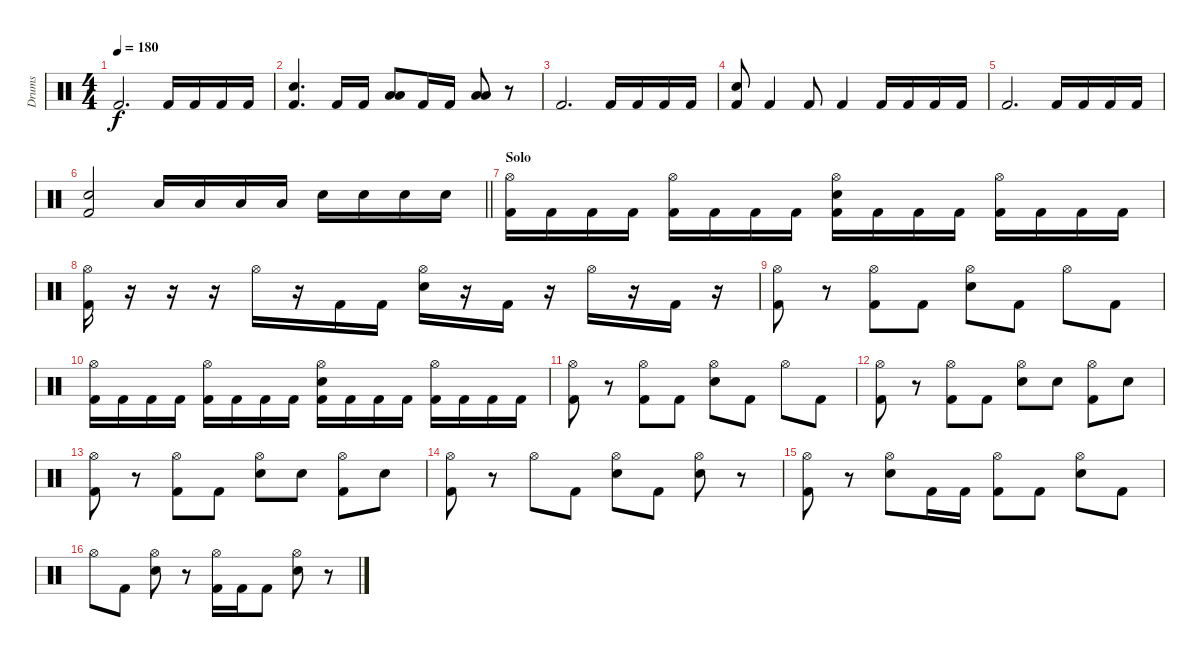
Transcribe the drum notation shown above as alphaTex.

\track ("Drums" "Drums") {instrument percussion}
\staff {score}
\articulation defaults
\ts (4 4)
\tempo 180
\clef neutral
\ks c "Kick (hit) 2".2{d dy f} "Kick (hit) 2".16 "Kick (hit) 2".16 "Kick (hit) 2".16 "Kick (hit) 2".16
|
("Electric Snare (hit)" "Kick (hit) 2").4{d} "Kick (hit) 2".16 "Kick (hit) 2".16 ("Low Tom (hit)" "Low Tom (hit)").8 "Kick (hit) 2".16 "Kick (hit) 2".16 ("Low Floor Tom (hit)" "Low Floor Tom (hit)").8 r.8 |
"Kick (hit) 2".2{d} "Kick (hit) 2".16 "Kick (hit) 2".16 "Kick (hit) 2".16 "Kick (hit) 2".16 |
("Electric Snare (hit)" "Kick (hit) 2").8 "Kick (hit) 2".4 "Kick (hit) 2".8 "Kick (hit) 2".4 "Kick (hit) 2".16 "Kick (hit) 2".16 "Kick (hit) 2".16 "Kick (hit) 2".16 |
"Kick (hit) 2".2{d} "Kick (hit) 2".16 "Kick (hit) 2".16 "Kick (hit) 2".16 "Kick (hit) 2".16 |
\barLineRight lightlight
("Electric Snare (hit)" "Kick (hit) 2").2 "Low Floor Tom (hit)".16 "Low Floor Tom (hit)".16 "Low Floor Tom (hit)".16 "Low Floor Tom (hit)".16 "Electric Snare (hit)".16 "Electric Snare (hit)".16 "Electric Snare (hit)".16 "Electric Snare (hit)".16 |
\section ("" "Solo")
("Hi-Hat (open)" "Kick (hit) 2").16 "Kick (hit) 2".16 "Kick (hit) 2".16 "Kick (hit) 2".16 ("Hi-Hat (open)" "Kick (hit) 2").16 "Kick (hit) 2".16 "Kick (hit) 2".16 "Kick (hit) 2".16 ("Hi-Hat (open)" "Electric Snare (hit)" "Kick (hit) 2").16 "Kick (hit) 2".16 "Kick (hit) 2".16 "Kick (hit) 2".16 ("Hi-Hat (open)" "Kick (hit) 2").16 "Kick (hit) 2".16 "Kick (hit) 2".16 "Kick (hit) 2".16 |
("Hi-Hat (open)" "Kick (hit) 2").16 r.16 r.16 r.16 "Hi-Hat (open)".16 r.16 "Kick (hit) 2".16 "Kick (hit) 2".16 ("Hi-Hat (open)" "Electric Snare (hit)").16 r.16 "Kick (hit) 2".16 r.16 "Hi-Hat (open)".16 r.16 "Kick (hit) 2".16 r.16 |
("Hi-Hat (open)" "Kick (hit) 2").8 r.8 ("Hi-Hat (open)" "Kick (hit) 2").8 "Kick (hit) 2".8 ("Hi-Hat (open)" "Electric Snare (hit)").8 "Kick (hit) 2".8 "Hi-Hat (open)".8 "Kick (hit) 2".8 |
("Hi-Hat (open)" "Kick (hit) 2").16 "Kick (hit) 2".16 "Kick (hit) 2".16 "Kick (hit) 2".16 ("Hi-Hat (open)" "Kick (hit) 2").16 "Kick (hit) 2".16 "Kick (hit) 2".16 "Kick (hit) 2".16 ("Hi-Hat (open)" "Electric Snare (hit)" "Kick (hit) 2").16 "Kick (hit) 2".16 "Kick (hit) 2".16 "Kick (hit) 2".16 ("Hi-Hat (open)" "Kick (hit) 2").16 "Kick (hit) 2".16 "Kick (hit) 2".16 "Kick (hit) 2".16 |
("Hi-Hat (open)" "Kick (hit) 2").8 r.8 ("Hi-Hat (open)" "Kick (hit) 2").8 "Kick (hit) 2".8 ("Hi-Hat (open)" "Electric Snare (hit)").8 "Kick (hit) 2".8 "Hi-Hat (open)".8 "Kick (hit) 2".8 |
("Hi-Hat (open)" "Kick (hit) 2").8 r.8 ("Hi-Hat (open)" "Kick (hit) 2").8 "Kick (hit) 2".8 ("Hi-Hat (open)" "Electric Snare (hit)").8 "Electric Snare (hit)".8 ("Hi-Hat (open)" "Kick (hit) 2").8 "Electric Snare (hit)".8 |
("Hi-Hat (open)" "Kick (hit) 2").8 r.8 ("Hi-Hat (open)" "Kick (hit) 2").8 "Kick (hit) 2".8 ("Hi-Hat (open)" "Electric Snare (hit)").8 "Electric Snare (hit)".8 ("Hi-Hat (open)" "Kick (hit) 2").8 "Electric Snare (hit)".8 |
("Hi-Hat (open)" "Kick (hit) 2").8 r.8 "Hi-Hat (open)".8 "Kick (hit) 2".8 ("Hi-Hat (open)" "Electric Snare (hit)").8 "Kick (hit) 2".8 ("Hi-Hat (open)" "Electric Snare (hit)").8 r.8 |
("Hi-Hat (open)" "Kick (hit) 2").8 r.8 ("Hi-Hat (open)" "Electric Snare (hit)").8 "Kick (hit) 2".16 "Kick (hit) 2".16 ("Hi-Hat (open)" "Kick (hit) 2").8 "Kick (hit) 2".8 ("Hi-Hat (open)" "Electric Snare (hit)").8 "Kick (hit) 2".8 |
"Hi-Hat (open)".8 "Kick (hit) 2".8 ("Hi-Hat (open)" "Electric Snare (hit)").8 r.8 ("Hi-Hat (open)" "Kick (hit) 2").16 "Kick (hit) 2".16 "Kick (hit) 2".8 ("Hi-Hat (open)" "Electric Snare (hit)").8 r.8
